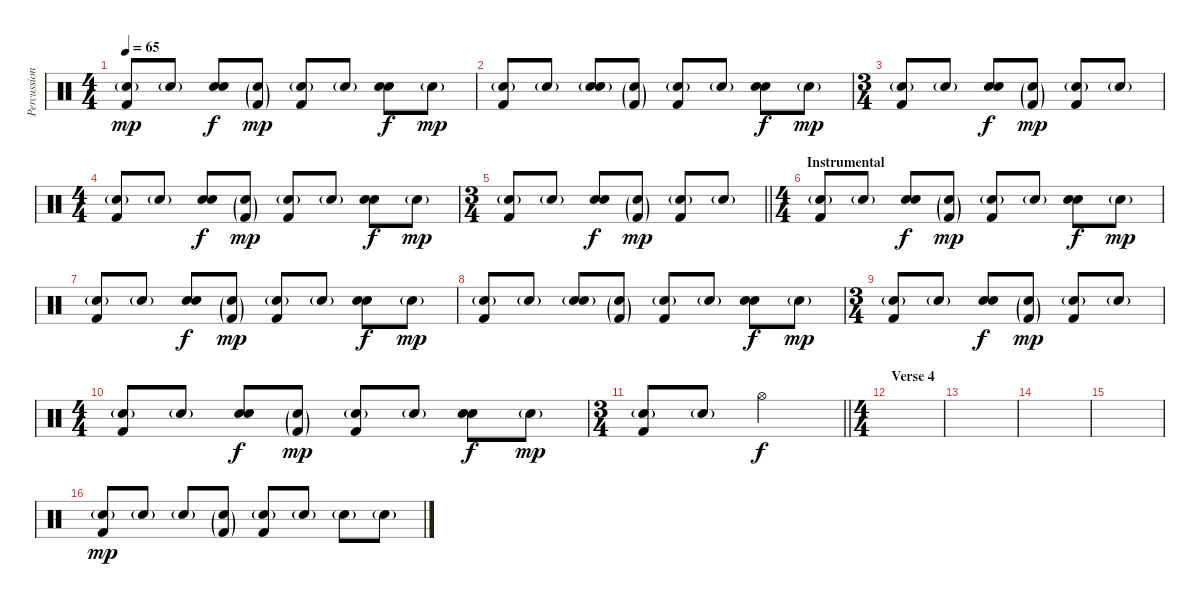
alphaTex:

\track ("Percussion" "Percussion") {instrument percussion}
\staff {score}
\articulation defaults
\ts (4 4)
\tempo 65
\clef neutral
\ks c
("Snare (hit) 2"{g} "Kick (hit) 2").8{dy mp} "Snare (hit) 2"{g}.8 ("Hand Clap (hit)" "Snare (hit) 2").8{dy f} ("Snare (hit) 2"{g} "Kick (hit) 2"{g}).8{dy mp} ("Snare (hit) 2"{g} "Kick (hit) 2").8 "Snare (hit) 2"{g}.8 ("Hand Clap (hit)" "Snare (hit) 2").8{dy f} "Snare (hit) 2"{g}.8{dy mp} |
("Snare (hit) 2"{g} "Kick (hit) 2").8 "Snare (hit) 2"{g}.8 ("Hand Clap (hit)" "Snare (hit) 2"{g}).8 ("Snare (hit) 2"{g} "Kick (hit) 2"{g}).8 ("Snare (hit) 2"{g} "Kick (hit) 2").8 "Snare (hit) 2"{g}.8 ("Hand Clap (hit)" "Snare (hit) 2").8{dy f} "Snare (hit) 2"{g}.8{dy mp} |
\ts (3 4)
("Snare (hit) 2"{g} "Kick (hit) 2").8 "Snare (hit) 2"{g}.8 ("Hand Clap (hit)" "Snare (hit) 2").8{dy f} ("Snare (hit) 2"{g} "Kick (hit) 2"{g}).8{dy mp} ("Snare (hit) 2"{g} "Kick (hit) 2").8 "Snare (hit) 2"{g}.8 |
\ts (4 4)
("Snare (hit) 2"{g} "Kick (hit) 2").8 "Snare (hit) 2"{g}.8 ("Hand Clap (hit)" "Snare (hit) 2").8{dy f} ("Snare (hit) 2"{g} "Kick (hit) 2"{g}).8{dy mp} ("Snare (hit) 2"{g} "Kick (hit) 2").8 "Snare (hit) 2"{g}.8 ("Hand Clap (hit)" "Snare (hit) 2").8{dy f} "Snare (hit) 2"{g}.8{dy mp} |
\ts (3 4)
\barLineRight lightlight
("Snare (hit) 2"{g} "Kick (hit) 2").8 "Snare (hit) 2"{g}.8 ("Hand Clap (hit)" "Snare (hit) 2").8{dy f} ("Snare (hit) 2"{g} "Kick (hit) 2"{g}).8{dy mp} ("Snare (hit) 2"{g} "Kick (hit) 2").8 "Snare (hit) 2"{g}.8 |
\ts (4 4)
\section ("" "Instrumental")
("Snare (hit) 2"{g} "Kick (hit) 2").8 "Snare (hit) 2"{g}.8 ("Hand Clap (hit)" "Snare (hit) 2").8{dy f} ("Snare (hit) 2"{g} "Kick (hit) 2"{g}).8{dy mp} ("Snare (hit) 2"{g} "Kick (hit) 2").8 "Snare (hit) 2"{g}.8 ("Hand Clap (hit)" "Snare (hit) 2").8{dy f} "Snare (hit) 2"{g}.8{dy mp} |
("Snare (hit) 2"{g} "Kick (hit) 2").8 "Snare (hit) 2"{g}.8 ("Hand Clap (hit)" "Snare (hit) 2").8{dy f} ("Snare (hit) 2"{g} "Kick (hit) 2"{g}).8{dy mp} ("Snare (hit) 2"{g} "Kick (hit) 2").8 "Snare (hit) 2"{g}.8 ("Hand Clap (hit)" "Snare (hit) 2").8{dy f} "Snare (hit) 2"{g}.8{dy mp} |
("Snare (hit) 2"{g} "Kick (hit) 2").8 "Snare (hit) 2"{g}.8 ("Hand Clap (hit)" "Snare (hit) 2"{g}).8 ("Snare (hit) 2"{g} "Kick (hit) 2"{g}).8 ("Snare (hit) 2"{g} "Kick (hit) 2").8 "Snare (hit) 2"{g}.8 ("Hand Clap (hit)" "Snare (hit) 2").8{dy f} "Snare (hit) 2"{g}.8{dy mp} |
\ts (3 4)
("Snare (hit) 2"{g} "Kick (hit) 2").8 "Snare (hit) 2"{g}.8 ("Hand Clap (hit)" "Snare (hit) 2").8{dy f} ("Snare (hit) 2"{g} "Kick (hit) 2"{g}).8{dy mp} ("Snare (hit) 2"{g} "Kick (hit) 2").8 "Snare (hit) 2"{g}.8 |
\ts (4 4)
("Snare (hit) 2"{g} "Kick (hit) 2").8 "Snare (hit) 2"{g}.8 ("Hand Clap (hit)" "Snare (hit) 2").8{dy f} ("Snare (hit) 2"{g} "Kick (hit) 2"{g}).8{dy mp} ("Snare (hit) 2"{g} "Kick (hit) 2").8 "Snare (hit) 2"{g}.8 ("Hand Clap (hit)" "Snare (hit) 2").8{dy f} "Snare (hit) 2"{g}.8{dy mp} |
\ts (3 4)
\barLineRight lightlight
("Snare (hit) 2"{g} "Kick (hit) 2").8 "Snare (hit) 2"{g}.8 "Hi-Hat (open)".2{dy f} |
\ts (4 4)
\section ("" "Verse 4")
|
|
|
|
("Snare (hit) 2"{g} "Kick (hit) 2").8{dy mp} "Snare (hit) 2"{g}.8 "Snare (hit) 2"{g}.8 ("Snare (hit) 2"{g} "Kick (hit) 2"{g}).8 ("Snare (hit) 2"{g} "Kick (hit) 2").8 "Snare (hit) 2"{g}.8 "Snare (hit) 2"{g}.8 "Snare (hit) 2"{g}.8
